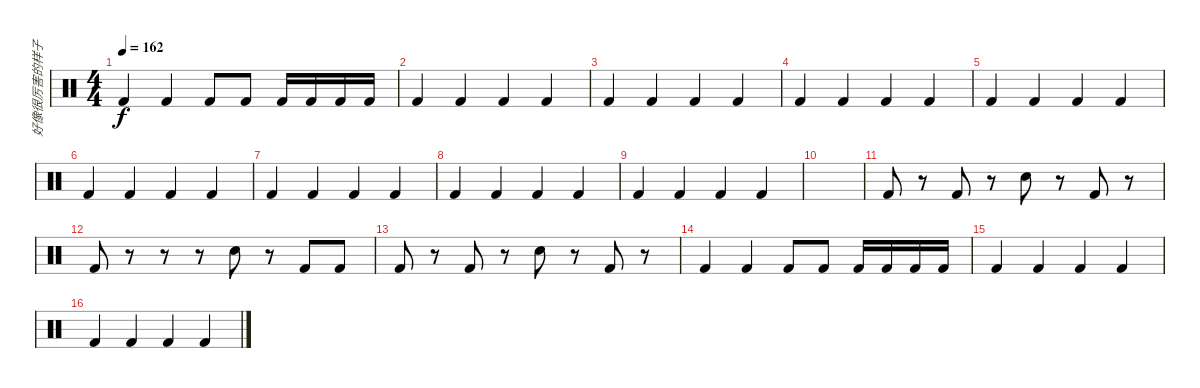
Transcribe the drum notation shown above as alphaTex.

\track ("好像很厉害的样子" "好像很厉害的样子") {instrument percussion}
\staff {score}
\articulation defaults
\ts (4 4)
\tempo 162
\clef neutral
\ks c "Kick (hit) 2".4{dy f} "Kick (hit) 2".4 "Kick (hit) 2".8 "Kick (hit) 2".8 "Kick (hit) 2".16 "Kick (hit) 2".16 "Kick (hit) 2".16 "Kick (hit) 2".16
|
"Kick (hit) 2".4 "Kick (hit) 2".4 "Kick (hit) 2".4 "Kick (hit) 2".4 |
"Kick (hit) 2".4 "Kick (hit) 2".4 "Kick (hit) 2".4 "Kick (hit) 2".4 |
"Kick (hit) 2".4 "Kick (hit) 2".4 "Kick (hit) 2".4 "Kick (hit) 2".4 |
"Kick (hit) 2".4 "Kick (hit) 2".4 "Kick (hit) 2".4 "Kick (hit) 2".4 |
"Kick (hit) 2".4 "Kick (hit) 2".4 "Kick (hit) 2".4 "Kick (hit) 2".4 |
"Kick (hit) 2".4 "Kick (hit) 2".4 "Kick (hit) 2".4 "Kick (hit) 2".4 |
"Kick (hit) 2".4 "Kick (hit) 2".4 "Kick (hit) 2".4 "Kick (hit) 2".4 |
"Kick (hit) 2".4 "Kick (hit) 2".4 "Kick (hit) 2".4 "Kick (hit) 2".4 |
|
"Kick (hit) 2".8 r.8 "Kick (hit) 2".8 r.8 "Snare (hit) 2".8 r.8 "Kick (hit) 2".8 r.8 |
"Kick (hit) 2".8 r.8 r.8 r.8 "Snare (hit) 2".8 r.8 "Kick (hit) 2".8 "Kick (hit) 2".8 |
"Kick (hit) 2".8 r.8 "Kick (hit) 2".8 r.8 "Snare (hit) 2".8 r.8 "Kick (hit) 2".8 r.8 |
"Kick (hit) 2".4 "Kick (hit) 2".4 "Kick (hit) 2".8 "Kick (hit) 2".8 "Kick (hit) 2".16 "Kick (hit) 2".16 "Kick (hit) 2".16 "Kick (hit) 2".16 |
"Kick (hit) 2".4 "Kick (hit) 2".4 "Kick (hit) 2".4 "Kick (hit) 2".4 |
"Kick (hit) 2".4 "Kick (hit) 2".4 "Kick (hit) 2".4 "Kick (hit) 2".4
